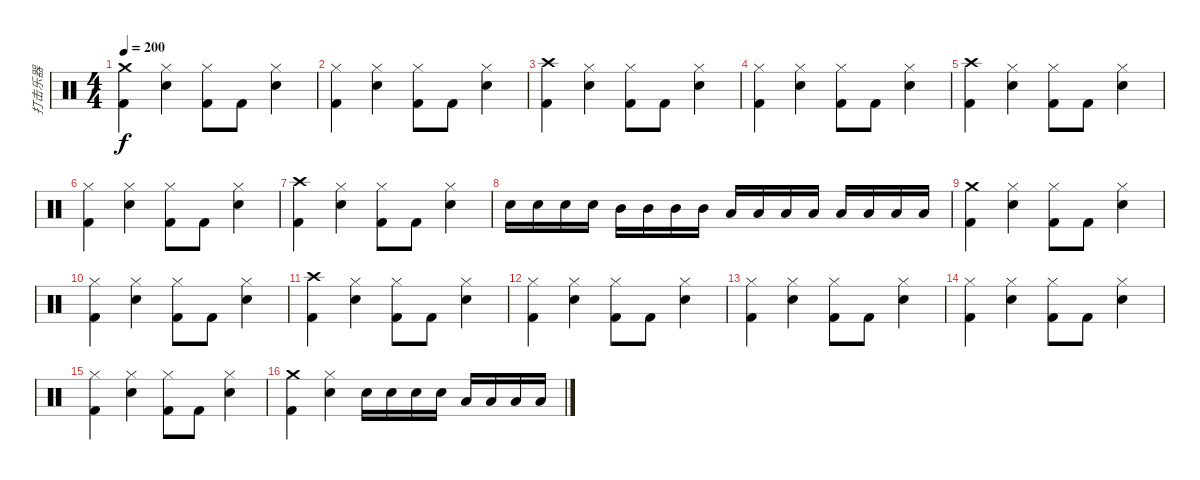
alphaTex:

\track ("打击乐器" "打击乐器") {instrument percussion}
\staff {score}
\articulation defaults
\ts (4 4)
\tempo 200
\clef neutral
\ks c
("Crash medium (hit)" "Kick (hit) 2").4{dy f} ("Hi-Hat (closed)" "Snare (hit) 2").4 ("Hi-Hat (closed)" "Kick (hit) 2").8 "Kick (hit) 2".8 ("Hi-Hat (closed)" "Snare (hit) 2").4 |
("Hi-Hat (closed)" "Kick (hit) 2").4 ("Hi-Hat (closed)" "Snare (hit) 2").4 ("Hi-Hat (closed)" "Kick (hit) 2").8 "Kick (hit) 2".8 ("Hi-Hat (closed)" "Snare (hit) 2").4 |
("Crash high (hit)" "Kick (hit) 2").4 ("Hi-Hat (closed)" "Snare (hit) 2").4 ("Hi-Hat (closed)" "Kick (hit) 2").8 "Kick (hit) 2".8 ("Hi-Hat (closed)" "Snare (hit) 2").4 |
("Hi-Hat (closed)" "Kick (hit) 2").4 ("Hi-Hat (closed)" "Snare (hit) 2").4 ("Hi-Hat (closed)" "Kick (hit) 2").8 "Kick (hit) 2".8 ("Hi-Hat (closed)" "Snare (hit) 2").4 |
("Crash high (hit)" "Kick (hit) 2").4 ("Hi-Hat (closed)" "Snare (hit) 2").4 ("Hi-Hat (closed)" "Kick (hit) 2").8 "Kick (hit) 2".8 ("Hi-Hat (closed)" "Snare (hit) 2").4 |
("Hi-Hat (closed)" "Kick (hit) 2").4 ("Hi-Hat (closed)" "Snare (hit) 2").4 ("Hi-Hat (closed)" "Kick (hit) 2").8 "Kick (hit) 2".8 ("Hi-Hat (closed)" "Snare (hit) 2").4 |
("Crash high (hit)" "Kick (hit) 2").4 ("Hi-Hat (closed)" "Snare (hit) 2").4 ("Hi-Hat (closed)" "Kick (hit) 2").8 "Kick (hit) 2".8 ("Hi-Hat (closed)" "Snare (hit) 2").4 |
"Snare (hit) 2".16 "Snare (hit) 2".16 "Snare (hit) 2".16 "Snare (hit) 2".16 "Mid Tom (hit)".16 "Mid Tom (hit)".16 "Mid Tom (hit)".16 "Mid Tom (hit)".16 "Low Tom (hit)".16 "Low Tom (hit)".16 "Low Tom (hit)".16 "Low Tom (hit)".16 "Low Floor Tom (hit)".16 "Low Floor Tom (hit)".16 "Low Floor Tom (hit)".16 "Low Floor Tom (hit)".16 |
("Crash medium (hit)" "Kick (hit) 2").4 ("Hi-Hat (closed)" "Snare (hit) 2").4 ("Hi-Hat (closed)" "Kick (hit) 2").8 "Kick (hit) 2".8 ("Hi-Hat (closed)" "Snare (hit) 2").4 |
("Hi-Hat (closed)" "Kick (hit) 2").4 ("Hi-Hat (closed)" "Snare (hit) 2").4 ("Hi-Hat (closed)" "Kick (hit) 2").8 "Kick (hit) 2".8 ("Hi-Hat (closed)" "Snare (hit) 2").4 |
("Crash high (hit)" "Kick (hit) 2").4 ("Hi-Hat (closed)" "Snare (hit) 2").4 ("Hi-Hat (closed)" "Kick (hit) 2").8 "Kick (hit) 2".8 ("Hi-Hat (closed)" "Snare (hit) 2").4 |
("Hi-Hat (closed)" "Kick (hit) 2").4 ("Hi-Hat (closed)" "Snare (hit) 2").4 ("Hi-Hat (closed)" "Kick (hit) 2").8 "Kick (hit) 2".8 ("Hi-Hat (closed)" "Snare (hit) 2").4 |
("Hi-Hat (closed)" "Kick (hit) 2").4 ("Hi-Hat (closed)" "Snare (hit) 2").4 ("Hi-Hat (closed)" "Kick (hit) 2").8 "Kick (hit) 2".8 ("Hi-Hat (closed)" "Snare (hit) 2").4 |
("Hi-Hat (closed)" "Kick (hit) 2").4 ("Hi-Hat (closed)" "Snare (hit) 2").4 ("Hi-Hat (closed)" "Kick (hit) 2").8 "Kick (hit) 2".8 ("Hi-Hat (closed)" "Snare (hit) 2").4 |
("Hi-Hat (closed)" "Kick (hit) 2").4 ("Hi-Hat (closed)" "Snare (hit) 2").4 ("Hi-Hat (closed)" "Kick (hit) 2").8 "Kick (hit) 2".8 ("Hi-Hat (closed)" "Snare (hit) 2").4 |
("Crash medium (hit)" "Kick (hit) 2").4 ("Hi-Hat (closed)" "Snare (hit) 2").4 "Snare (hit) 2".16 "Snare (hit) 2".16 "Snare (hit) 2".16 "Snare (hit) 2".16 "Low Floor Tom (hit)".16 "Low Floor Tom (hit)".16 "Low Tom (hit)".16 "Low Tom (hit)".16
